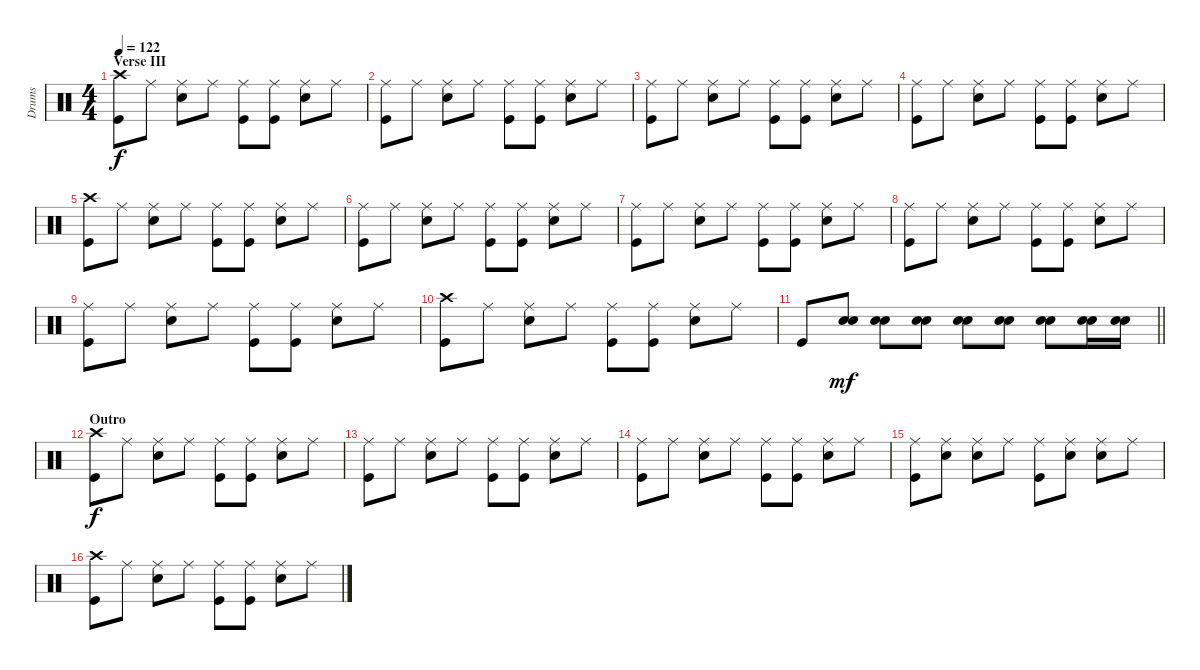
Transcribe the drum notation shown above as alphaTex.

\track ("Drums" "Drums") {instrument percussion}
\staff {score}
\articulation defaults
\ts (4 4)
\section ("" "Verse III")
\tempo 122
\clef neutral
\ks c
("Crash high (hit)" "Kick (hit)").8{dy f} "Ride (middle)".8 ("Ride (middle)" "Electric Snare (hit)").8 "Ride (middle)".8 ("Ride (middle)" "Kick (hit)").8 ("Ride (middle)" "Kick (hit)").8 ("Ride (middle)" "Electric Snare (hit)").8 "Ride (middle)".8 |
("Ride (middle)" "Kick (hit)").8 "Ride (middle)".8 ("Ride (middle)" "Electric Snare (hit)").8 "Ride (middle)".8 ("Ride (middle)" "Kick (hit)").8 ("Ride (middle)" "Kick (hit)").8 ("Ride (middle)" "Electric Snare (hit)").8 "Ride (middle)".8 |
("Ride (middle)" "Kick (hit)").8 "Ride (middle)".8 ("Ride (middle)" "Electric Snare (hit)").8 "Ride (middle)".8 ("Ride (middle)" "Kick (hit)").8 ("Ride (middle)" "Kick (hit)").8 ("Ride (middle)" "Electric Snare (hit)").8 "Ride (middle)".8 |
("Ride (middle)" "Kick (hit)").8 "Ride (middle)".8 ("Ride (middle)" "Electric Snare (hit)").8 "Ride (middle)".8 ("Ride (middle)" "Kick (hit)").8 ("Ride (middle)" "Kick (hit)").8 ("Ride (middle)" "Electric Snare (hit)").8 "Ride (middle)".8 |
("Crash high (hit)" "Kick (hit)").8 "Ride (middle)".8 ("Ride (middle)" "Electric Snare (hit)").8 "Ride (middle)".8 ("Ride (middle)" "Kick (hit)").8 ("Ride (middle)" "Kick (hit)").8 ("Ride (middle)" "Electric Snare (hit)").8 "Ride (middle)".8 |
("Ride (middle)" "Kick (hit)").8 "Ride (middle)".8 ("Ride (middle)" "Electric Snare (hit)").8 "Ride (middle)".8 ("Ride (middle)" "Kick (hit)").8 ("Ride (middle)" "Kick (hit)").8 ("Ride (middle)" "Electric Snare (hit)").8 "Ride (middle)".8 |
("Ride (middle)" "Kick (hit)").8 "Ride (middle)".8 ("Ride (middle)" "Electric Snare (hit)").8 "Ride (middle)".8 ("Ride (middle)" "Kick (hit)").8 ("Ride (middle)" "Kick (hit)").8 ("Ride (middle)" "Electric Snare (hit)").8 "Ride (middle)".8 |
("Ride (middle)" "Kick (hit)").8 "Ride (middle)".8 ("Ride (middle)" "Electric Snare (hit)").8 "Ride (middle)".8 ("Ride (middle)" "Kick (hit)").8 ("Ride (middle)" "Kick (hit)").8 ("Ride (middle)" "Electric Snare (hit)").8 "Ride (middle)".8 |
("Ride (middle)" "Kick (hit)").8 "Ride (middle)".8 ("Ride (middle)" "Electric Snare (hit)").8 "Ride (middle)".8 ("Ride (middle)" "Kick (hit)").8 ("Ride (middle)" "Kick (hit)").8 ("Ride (middle)" "Electric Snare (hit)").8 "Ride (middle)".8 |
("Crash high (hit)" "Kick (hit)").8 "Ride (middle)".8 ("Ride (middle)" "Electric Snare (hit)").8 "Ride (middle)".8 ("Ride (middle)" "Kick (hit)").8 ("Ride (middle)" "Kick (hit)").8 ("Ride (middle)" "Electric Snare (hit)").8 "Ride (middle)".8 |
\barLineRight lightlight "Kick (hit)".8
("Electric Snare (hit)" "Snare (hit) 2").8{dy mf} ("Electric Snare (hit)" "Snare (hit) 2").8 ("Electric Snare (hit)" "Snare (hit) 2").8 ("Electric Snare (hit)" "Snare (hit) 2").8 ("Electric Snare (hit)" "Snare (hit) 2").8 ("Electric Snare (hit)" "Snare (hit) 2").8 ("Electric Snare (hit)" "Snare (hit) 2").16 ("Electric Snare (hit)" "Snare (hit) 2").16 |
\section ("" "Outro")
("Crash high (hit)" "Kick (hit)").8{dy f} "Ride (middle)".8 ("Ride (middle)" "Electric Snare (hit)").8 "Ride (middle)".8 ("Ride (middle)" "Kick (hit)").8 ("Ride (middle)" "Kick (hit)").8 ("Ride (middle)" "Electric Snare (hit)").8 "Ride (middle)".8 |
("Ride (middle)" "Kick (hit)").8 "Ride (middle)".8 ("Ride (middle)" "Electric Snare (hit)").8 "Ride (middle)".8 ("Ride (middle)" "Kick (hit)").8 ("Ride (middle)" "Kick (hit)").8 ("Ride (middle)" "Electric Snare (hit)").8 "Ride (middle)".8 |
("Ride (middle)" "Kick (hit)").8 "Ride (middle)".8 ("Ride (middle)" "Electric Snare (hit)").8 "Ride (middle)".8 ("Ride (middle)" "Kick (hit)").8 ("Ride (middle)" "Kick (hit)").8 ("Ride (middle)" "Electric Snare (hit)").8 "Ride (middle)".8 |
("Ride (middle)" "Kick (hit)").8 ("Ride (middle)" "Electric Snare (hit)").8 ("Ride (middle)" "Electric Snare (hit)").8 "Ride (middle)".8 ("Ride (middle)" "Kick (hit)").8 ("Ride (middle)" "Electric Snare (hit)").8 ("Ride (middle)" "Electric Snare (hit)").8 "Ride (middle)".8 |
("Crash high (hit)" "Kick (hit)").8 "Ride (middle)".8 ("Ride (middle)" "Electric Snare (hit)").8 "Ride (middle)".8 ("Ride (middle)" "Kick (hit)").8 ("Ride (middle)" "Kick (hit)").8 ("Ride (middle)" "Electric Snare (hit)").8 "Ride (middle)".8
